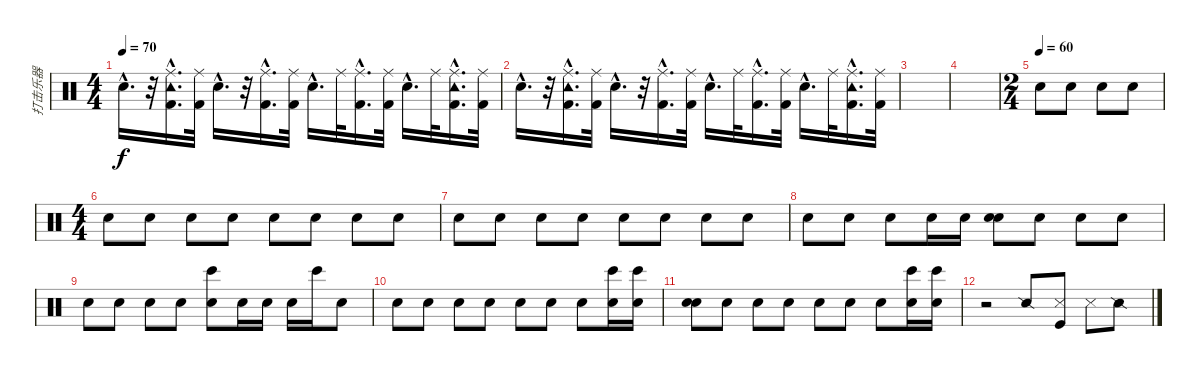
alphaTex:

\track ("打击乐器" "打击乐器") {instrument percussion}
\staff {score}
\articulation defaults
\ts (4 4)
\tempo 70
\clef neutral
\ks c "Electric Snare (hit)"{hac}.16{d dy f}
r.32 ("Tambourine (hit)"{hac} "Ride (middle)"{hac} "Kick (hit) 2"{hac}).16{d} ("Ride (middle)" "Kick (hit) 2").32 "Snare (hit) 2"{hac}.16{d} r.32 ("Ride (middle)"{hac} "Kick (hit) 2"{hac}).16{d} ("Ride (middle)" "Kick (hit) 2").32 "Snare (hit) 2"{hac}.16{d} "Ride (middle)".32 ("Ride (middle)"{hac} "Kick (hit) 2"{hac}).16{d} ("Ride (middle)" "Kick (hit) 2").32 "Snare (hit) 2"{hac}.16{d} "Ride (middle)".32 ("Tambourine (hit)"{hac} "Ride (middle)"{hac} "Kick (hit) 2"{hac}).16{d} ("Ride (middle)" "Kick (hit) 2").32 |
"Electric Snare (hit)"{hac}.16{d} r.32 ("Tambourine (hit)"{hac} "Ride (middle)"{hac} "Kick (hit) 2"{hac}).16{d} ("Ride (middle)" "Kick (hit) 2").32 "Snare (hit) 2"{hac}.16{d} r.32 ("Ride (middle)"{hac} "Kick (hit) 2"{hac}).16{d} ("Ride (middle)" "Kick (hit) 2").32 "Snare (hit) 2"{hac}.16{d} "Ride (middle)".32 ("Ride (middle)"{hac} "Kick (hit) 2"{hac}).16{d} ("Ride (middle)" "Kick (hit) 2").32 "Snare (hit) 2"{hac}.16{d} "Ride (middle)".32 ("Tambourine (hit)"{hac} "Ride (middle)"{hac} "Kick (hit) 2"{hac}).16{d} ("Ride (middle)" "Kick (hit) 2").32 |
|
|
\ts (2 4)
\tempo (60)
"Snare (hit) 2".8 "Snare (hit) 2".8 "Snare (hit) 2".8 "Snare (hit) 2".8 |
\ts (4 4)
"Snare (hit) 2".8 "Snare (hit) 2".8 "Snare (hit) 2".8 "Snare (hit) 2".8 "Snare (hit) 2".8 "Snare (hit) 2".8 "Snare (hit) 2".8 "Snare (hit) 2".8 |
"Snare (hit) 2".8 "Snare (hit) 2".8 "Snare (hit) 2".8 "Snare (hit) 2".8 "Snare (hit) 2".8 "Snare (hit) 2".8 "Snare (hit) 2".8 "Snare (hit) 2".8 |
"Snare (hit) 2".8 "Snare (hit) 2".8 "Snare (hit) 2".8 "Snare (hit) 2".16 "Hand Clap (hit)".16 ("Snare (hit) 2" "Hand Clap (hit)").8 "Snare (hit) 2".8 "Snare (hit) 2".8 "Snare (hit) 2".8 |
"Snare (hit) 2".8 "Snare (hit) 2".8 "Snare (hit) 2".8 "Snare (hit) 2".8 ("Snare (hit) 2" "Bongo High (hit)").8 "Snare (hit) 2".16 "Hand Clap (hit)".16 "Snare (hit) 2".16 "Bongo High (hit)".16 "Snare (hit) 2".8 |
"Snare (hit) 2".8 "Snare (hit) 2".8 "Snare (hit) 2".8 "Snare (hit) 2".8 "Snare (hit) 2".8 "Snare (hit) 2".8 "Snare (hit) 2".8 ("Snare (hit) 2" "Bongo High (hit)").16 ("Snare (hit) 2" "Bongo High (hit)").16 |
("Snare (hit) 2" "Hand Clap (hit)").8 "Snare (hit) 2".8 "Snare (hit) 2".8 "Snare (hit) 2".8 "Snare (hit) 2".8 "Snare (hit) 2".8 "Snare (hit) 2".8 ("Snare (hit) 2" "Bongo High (hit)").16 ("Snare (hit) 2" "Bongo High (hit)").16 |
r.2 "Snare (side stick) 2".8 ("Metronome (hit)" "Kick (hit)").8 "Metronome (hit)".8 "Snare (side stick) 2".8
